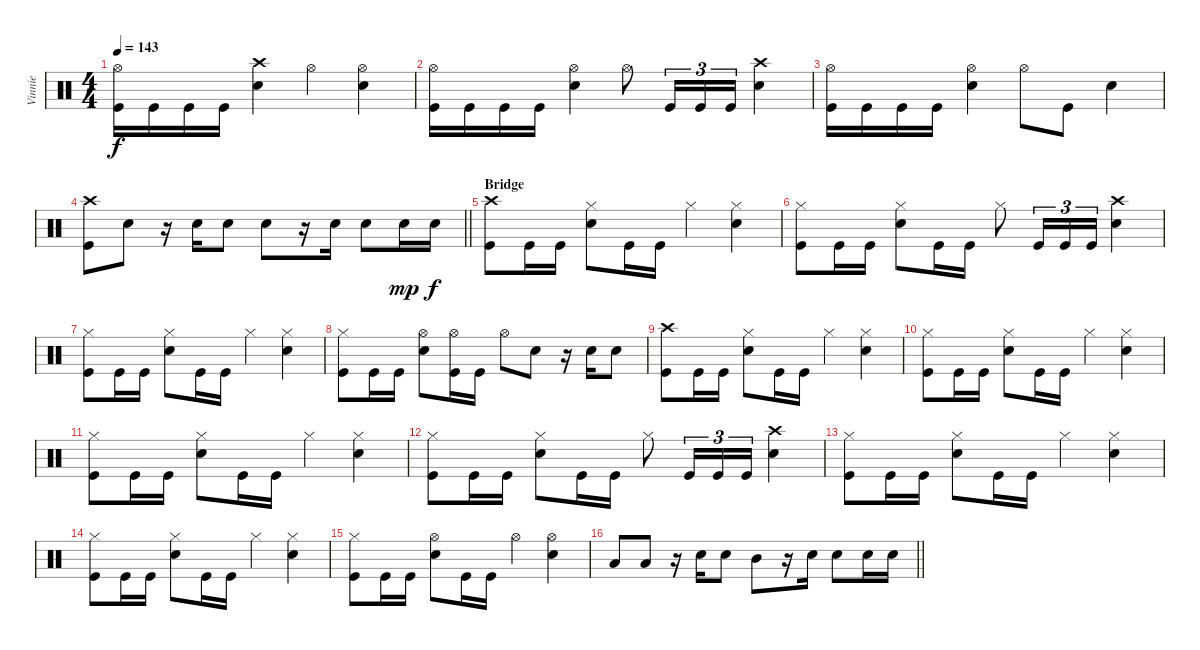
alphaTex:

\track ("Vinnie" "Vinnie") {instrument percussion}
\staff {score}
\articulation defaults
\ts (4 4)
\tempo 143
\clef neutral
\ks c
("Hi-Hat (open)" "Kick (hit)").16{dy f} "Kick (hit)".16 "Kick (hit)".16 "Kick (hit)".16 ("Crash high (hit)" "Electric Snare (hit)").4 "Hi-Hat (open)".4 ("Hi-Hat (open)" "Electric Snare (hit)").4 |
("Hi-Hat (open)" "Kick (hit)").16 "Kick (hit)".16 "Kick (hit)".16 "Kick (hit)".16 ("Hi-Hat (open)" "Electric Snare (hit)").4 "Hi-Hat (open)".8 "Kick (hit)".16{tu (3 2)} "Kick (hit)".16{tu (3 2)} "Kick (hit)".16{tu (3 2)} ("Crash high (hit)" "Electric Snare (hit)").4 |
("Hi-Hat (open)" "Kick (hit)").16 "Kick (hit)".16 "Kick (hit)".16 "Kick (hit)".16 ("Hi-Hat (open)" "Electric Snare (hit)").4 "Hi-Hat (open)".8 "Kick (hit)".8 "Electric Snare (hit)".4 |
\barLineRight lightlight
("Crash high (hit)" "Kick (hit)").8 "Electric Snare (hit)".8 r.16 "Electric Snare (hit)".16 "Electric Snare (hit)".8 "Electric Snare (hit)".8 r.16 "Electric Snare (hit)".16 "Electric Snare (hit)".8 "Electric Snare (hit)".16{dy mp} "Electric Snare (hit)".16{dy f} |
\section ("" "Bridge")
("Crash high (hit)" "Kick (hit)").8 "Kick (hit)".16 "Kick (hit)".16 ("Hi-Hat (closed)" "Electric Snare (hit)").8 "Kick (hit)".16 "Kick (hit)".16 "Hi-Hat (closed)".4 ("Hi-Hat (closed)" "Electric Snare (hit)").4 |
("Hi-Hat (closed)" "Kick (hit)").8 "Kick (hit)".16 "Kick (hit)".16 ("Hi-Hat (closed)" "Electric Snare (hit)").8 "Kick (hit)".16 "Kick (hit)".16 "Hi-Hat (closed)".8 "Kick (hit)".16{tu (3 2)} "Kick (hit)".16{tu (3 2)} "Kick (hit)".16{tu (3 2)} ("Crash high (hit)" "Electric Snare (hit)").4 |
("Hi-Hat (closed)" "Kick (hit)").8 "Kick (hit)".16 "Kick (hit)".16 ("Hi-Hat (closed)" "Electric Snare (hit)").8 "Kick (hit)".16 "Kick (hit)".16 "Hi-Hat (closed)".4 ("Hi-Hat (closed)" "Electric Snare (hit)").4 |
("Hi-Hat (closed)" "Kick (hit)").8 "Kick (hit)".16 "Kick (hit)".16 ("Hi-Hat (open)" "Electric Snare (hit)").8 ("Hi-Hat (open)" "Kick (hit)").16 "Kick (hit)".16 "Hi-Hat (open)".8 "Electric Snare (hit)".8 r.16 "Electric Snare (hit)".16 "Electric Snare (hit)".8 |
("Crash high (hit)" "Kick (hit)").8 "Kick (hit)".16 "Kick (hit)".16 ("Hi-Hat (closed)" "Electric Snare (hit)").8 "Kick (hit)".16 "Kick (hit)".16 "Hi-Hat (closed)".4 ("Hi-Hat (closed)" "Electric Snare (hit)").4 |
("Hi-Hat (closed)" "Kick (hit)").8 "Kick (hit)".16 "Kick (hit)".16 ("Hi-Hat (closed)" "Electric Snare (hit)").8 "Kick (hit)".16 "Kick (hit)".16 "Hi-Hat (closed)".4 ("Hi-Hat (closed)" "Electric Snare (hit)").4 |
("Hi-Hat (closed)" "Kick (hit)").8 "Kick (hit)".16 "Kick (hit)".16 ("Hi-Hat (closed)" "Electric Snare (hit)").8 "Kick (hit)".16 "Kick (hit)".16 "Hi-Hat (closed)".4 ("Hi-Hat (closed)" "Electric Snare (hit)").4 |
("Hi-Hat (closed)" "Kick (hit)").8 "Kick (hit)".16 "Kick (hit)".16 ("Hi-Hat (closed)" "Electric Snare (hit)").8 "Kick (hit)".16 "Kick (hit)".16 "Hi-Hat (closed)".8 "Kick (hit)".16{tu (3 2)} "Kick (hit)".16{tu (3 2)} "Kick (hit)".16{tu (3 2)} ("Crash high (hit)" "Electric Snare (hit)").4 |
("Hi-Hat (closed)" "Kick (hit)").8 "Kick (hit)".16 "Kick (hit)".16 ("Hi-Hat (closed)" "Electric Snare (hit)").8 "Kick (hit)".16 "Kick (hit)".16 "Hi-Hat (closed)".4 ("Hi-Hat (closed)" "Electric Snare (hit)").4 |
("Hi-Hat (closed)" "Kick (hit)").8 "Kick (hit)".16 "Kick (hit)".16 ("Hi-Hat (closed)" "Electric Snare (hit)").8 "Kick (hit)".16 "Kick (hit)".16 "Hi-Hat (closed)".4 ("Hi-Hat (closed)" "Electric Snare (hit)").4 |
("Hi-Hat (closed)" "Kick (hit)").8 "Kick (hit)".16 "Kick (hit)".16 ("Hi-Hat (open)" "Electric Snare (hit)").8 "Kick (hit)".16 "Kick (hit)".16 "Hi-Hat (open)".4 ("Hi-Hat (open)" "Electric Snare (hit)").4 |
\barLineRight lightlight "Low Tom (hit)".8 "Low Tom (hit)".8
r.16 "Electric Snare (hit)".16 "Electric Snare (hit)".8 "Mid Tom (hit)".8 r.16 "Electric Snare (hit)".16 "Electric Snare (hit)".8 "Electric Snare (hit)".16 "Electric Snare (hit)".16
